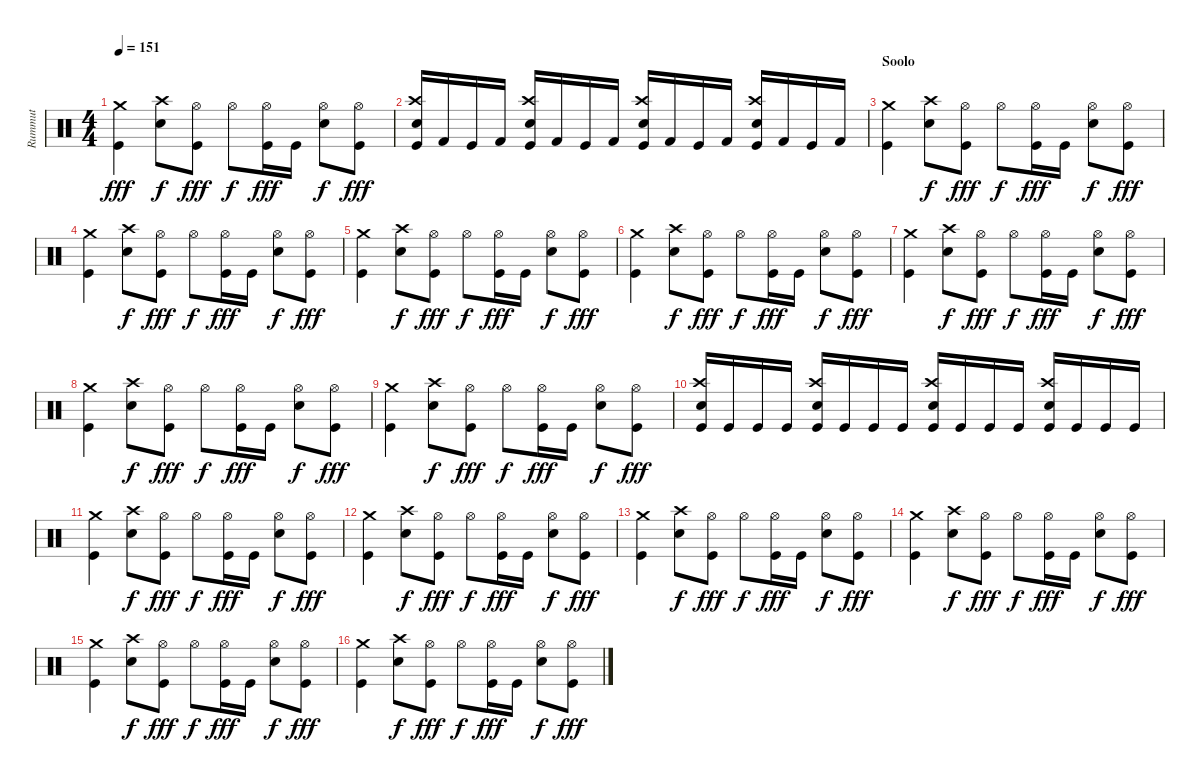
\track ("Rummut" "Rummut") {instrument percussion}
\staff {score}
\articulation defaults
\ts (4 4)
\tempo 151
\clef neutral
\ks c
("Crash medium (hit)" "Kick (hit)").4{dy fff} ("Crash high (hit)" "Snare (hit) 2").8{dy f} ("Hi-Hat (open)" "Kick (hit)").8{dy fff} "Hi-Hat (open)".8{dy f} ("Hi-Hat (open)" "Kick (hit)").16{dy fff} "Kick (hit)".16 ("Hi-Hat (open)" "Snare (hit) 2").8{dy f} ("Hi-Hat (open)" "Kick (hit)").8{dy fff} |
("Snare (hit) 2" "Crash high (hit)" "Kick (hit)").16 "Kick (hit) 2".16 "Kick (hit)".16 "Kick (hit) 2".16 ("Snare (hit) 2" "Crash high (hit)" "Kick (hit)").16 "Kick (hit) 2".16 "Kick (hit)".16 "Kick (hit) 2".16 ("Snare (hit) 2" "Crash high (hit)" "Kick (hit)").16 "Kick (hit) 2".16 "Kick (hit)".16 "Kick (hit) 2".16 ("Snare (hit) 2" "Crash high (hit)" "Kick (hit)").16 "Kick (hit) 2".16 "Kick (hit)".16 "Kick (hit) 2".16 |
\section ("" "Soolo")
("Crash medium (hit)" "Kick (hit)").4 ("Crash high (hit)" "Snare (hit) 2").8{dy f} ("Hi-Hat (open)" "Kick (hit)").8{dy fff} "Hi-Hat (open)".8{dy f} ("Hi-Hat (open)" "Kick (hit)").16{dy fff} "Kick (hit)".16 ("Hi-Hat (open)" "Snare (hit) 2").8{dy f} ("Hi-Hat (open)" "Kick (hit)").8{dy fff} |
("Crash medium (hit)" "Kick (hit)").4 ("Crash high (hit)" "Snare (hit) 2").8{dy f} ("Hi-Hat (open)" "Kick (hit)").8{dy fff} "Hi-Hat (open)".8{dy f} ("Hi-Hat (open)" "Kick (hit)").16{dy fff} "Kick (hit)".16 ("Hi-Hat (open)" "Snare (hit) 2").8{dy f} ("Hi-Hat (open)" "Kick (hit)").8{dy fff} |
("Crash medium (hit)" "Kick (hit)").4 ("Crash high (hit)" "Snare (hit) 2").8{dy f} ("Hi-Hat (open)" "Kick (hit)").8{dy fff} "Hi-Hat (open)".8{dy f} ("Hi-Hat (open)" "Kick (hit)").16{dy fff} "Kick (hit)".16 ("Hi-Hat (open)" "Snare (hit) 2").8{dy f} ("Hi-Hat (open)" "Kick (hit)").8{dy fff} |
("Crash medium (hit)" "Kick (hit)").4 ("Crash high (hit)" "Snare (hit) 2").8{dy f} ("Hi-Hat (open)" "Kick (hit)").8{dy fff} "Hi-Hat (open)".8{dy f} ("Hi-Hat (open)" "Kick (hit)").16{dy fff} "Kick (hit)".16 ("Hi-Hat (open)" "Snare (hit) 2").8{dy f} ("Hi-Hat (open)" "Kick (hit)").8{dy fff} |
("Crash medium (hit)" "Kick (hit)").4 ("Crash high (hit)" "Snare (hit) 2").8{dy f} ("Hi-Hat (open)" "Kick (hit)").8{dy fff} "Hi-Hat (open)".8{dy f} ("Hi-Hat (open)" "Kick (hit)").16{dy fff} "Kick (hit)".16 ("Hi-Hat (open)" "Snare (hit) 2").8{dy f} ("Hi-Hat (open)" "Kick (hit)").8{dy fff} |
("Crash medium (hit)" "Kick (hit)").4 ("Crash high (hit)" "Snare (hit) 2").8{dy f} ("Hi-Hat (open)" "Kick (hit)").8{dy fff} "Hi-Hat (open)".8{dy f} ("Hi-Hat (open)" "Kick (hit)").16{dy fff} "Kick (hit)".16 ("Hi-Hat (open)" "Snare (hit) 2").8{dy f} ("Hi-Hat (open)" "Kick (hit)").8{dy fff} |
("Crash medium (hit)" "Kick (hit)").4 ("Crash high (hit)" "Snare (hit) 2").8{dy f} ("Hi-Hat (open)" "Kick (hit)").8{dy fff} "Hi-Hat (open)".8{dy f} ("Hi-Hat (open)" "Kick (hit)").16{dy fff} "Kick (hit)".16 ("Hi-Hat (open)" "Snare (hit) 2").8{dy f} ("Hi-Hat (open)" "Kick (hit)").8{dy fff} |
("Snare (hit) 2" "Crash high (hit)" "Kick (hit)").16 "Kick (hit)".16 "Kick (hit)".16 "Kick (hit)".16 ("Snare (hit) 2" "Crash high (hit)" "Kick (hit)").16 "Kick (hit)".16 "Kick (hit)".16 "Kick (hit)".16 ("Snare (hit) 2" "Crash high (hit)" "Kick (hit)").16 "Kick (hit)".16 "Kick (hit)".16 "Kick (hit)".16 ("Snare (hit) 2" "Crash high (hit)" "Kick (hit)").16 "Kick (hit)".16 "Kick (hit)".16 "Kick (hit)".16 |
("Crash medium (hit)" "Kick (hit)").4 ("Crash high (hit)" "Snare (hit) 2").8{dy f} ("Hi-Hat (open)" "Kick (hit)").8{dy fff} "Hi-Hat (open)".8{dy f} ("Hi-Hat (open)" "Kick (hit)").16{dy fff} "Kick (hit)".16 ("Hi-Hat (open)" "Snare (hit) 2").8{dy f} ("Hi-Hat (open)" "Kick (hit)").8{dy fff} |
("Crash medium (hit)" "Kick (hit)").4 ("Crash high (hit)" "Snare (hit) 2").8{dy f} ("Hi-Hat (open)" "Kick (hit)").8{dy fff} "Hi-Hat (open)".8{dy f} ("Hi-Hat (open)" "Kick (hit)").16{dy fff} "Kick (hit)".16 ("Hi-Hat (open)" "Snare (hit) 2").8{dy f} ("Hi-Hat (open)" "Kick (hit)").8{dy fff} |
("Crash medium (hit)" "Kick (hit)").4 ("Crash high (hit)" "Snare (hit) 2").8{dy f} ("Hi-Hat (open)" "Kick (hit)").8{dy fff} "Hi-Hat (open)".8{dy f} ("Hi-Hat (open)" "Kick (hit)").16{dy fff} "Kick (hit)".16 ("Hi-Hat (open)" "Snare (hit) 2").8{dy f} ("Hi-Hat (open)" "Kick (hit)").8{dy fff} |
("Crash medium (hit)" "Kick (hit)").4 ("Crash high (hit)" "Snare (hit) 2").8{dy f} ("Hi-Hat (open)" "Kick (hit)").8{dy fff} "Hi-Hat (open)".8{dy f} ("Hi-Hat (open)" "Kick (hit)").16{dy fff} "Kick (hit)".16 ("Hi-Hat (open)" "Snare (hit) 2").8{dy f} ("Hi-Hat (open)" "Kick (hit)").8{dy fff} |
("Crash medium (hit)" "Kick (hit)").4 ("Crash high (hit)" "Snare (hit) 2").8{dy f} ("Hi-Hat (open)" "Kick (hit)").8{dy fff} "Hi-Hat (open)".8{dy f} ("Hi-Hat (open)" "Kick (hit)").16{dy fff} "Kick (hit)".16 ("Hi-Hat (open)" "Snare (hit) 2").8{dy f} ("Hi-Hat (open)" "Kick (hit)").8{dy fff} |
("Crash medium (hit)" "Kick (hit)").4 ("Crash high (hit)" "Snare (hit) 2").8{dy f} ("Hi-Hat (open)" "Kick (hit)").8{dy fff} "Hi-Hat (open)".8{dy f} ("Hi-Hat (open)" "Kick (hit)").16{dy fff} "Kick (hit)".16 ("Hi-Hat (open)" "Snare (hit) 2").8{dy f} ("Hi-Hat (open)" "Kick (hit)").8{dy fff}
